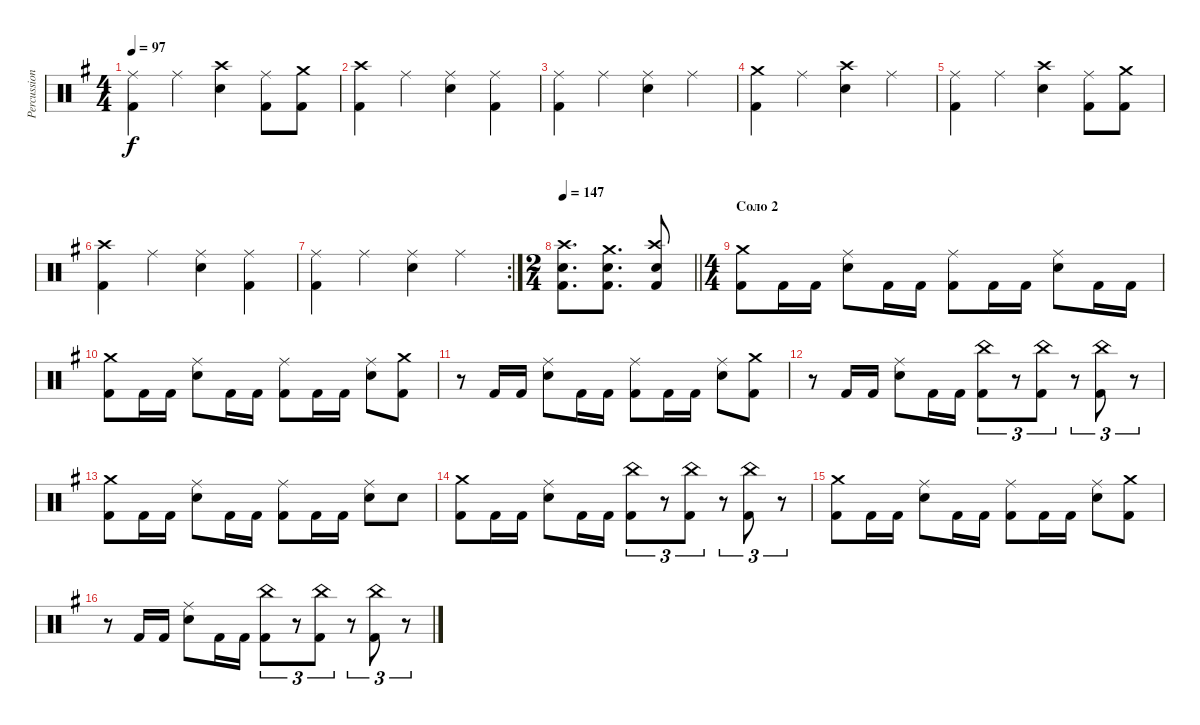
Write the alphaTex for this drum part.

\track ("Percussion" "Percussion") {instrument percussion}
\staff {score}
\articulation defaults
\ts (4 4)
\tempo 97
\clef neutral
\ks eminor
("Ride (middle)" "Kick (hit) 2").4{dy f} "Ride (middle)".4 ("Crash high (hit)" "Snare (hit) 2").4 ("Ride (middle)" "Kick (hit) 2").8 ("Crash medium (hit)" "Kick (hit) 2").8 |
("Crash high (hit)" "Kick (hit) 2").4 "Ride (middle)".4 ("Ride (middle)" "Snare (hit) 2").4 ("Ride (middle)" "Kick (hit) 2").4 |
("Ride (middle)" "Kick (hit) 2").4 "Ride (middle)".4 ("Ride (middle)" "Snare (hit) 2").4 "Ride (middle)".4 |
("Crash medium (hit)" "Kick (hit) 2").4 "Ride (middle)".4 ("Crash high (hit)" "Snare (hit) 2").4 "Ride (middle)".4 |
("Ride (middle)" "Kick (hit) 2").4 "Ride (middle)".4 ("Crash high (hit)" "Snare (hit) 2").4 ("Ride (middle)" "Kick (hit) 2").8 ("Crash medium (hit)" "Kick (hit) 2").8 |
("Crash high (hit)" "Kick (hit) 2").4 "Ride (middle)".4 ("Ride (middle)" "Snare (hit) 2").4 ("Ride (middle)" "Kick (hit) 2").4 |
\rc 2
("Ride (middle)" "Kick (hit) 2").4 "Ride (middle)".4 ("Ride (middle)" "Snare (hit) 2").4 "Ride (middle)".4 |
\ts (2 4)
\tempo 147
\barLineRight lightlight
("Crash high (hit)" "Snare (hit) 2" "Kick (hit) 2").8{d} ("Crash medium (hit)" "Snare (hit) 2" "Kick (hit) 2").8{d} ("Crash high (hit)" "Snare (hit) 2" "Kick (hit) 2").8 |
\ts (4 4)
\section ("" "Соло 2")
("Crash medium (hit)" "Kick (hit) 2").8 "Kick (hit) 2".16 "Kick (hit) 2".16 ("Ride (middle)" "Snare (hit) 2").8 "Kick (hit) 2".16 "Kick (hit) 2".16 ("Ride (middle)" "Kick (hit) 2").8 "Kick (hit) 2".16 "Kick (hit) 2".16 ("Ride (middle)" "Snare (hit) 2").8 "Kick (hit) 2".16 "Kick (hit) 2".16 |
("Crash medium (hit)" "Kick (hit) 2").8 "Kick (hit) 2".16 "Kick (hit) 2".16 ("Ride (middle)" "Snare (hit) 2").8 "Kick (hit) 2".16 "Kick (hit) 2".16 ("Ride (middle)" "Kick (hit) 2").8 "Kick (hit) 2".16 "Kick (hit) 2".16 ("Ride (middle)" "Snare (hit) 2").8 ("Crash medium (hit)" "Kick (hit) 2").8 |
r.8 "Kick (hit) 2".16 "Kick (hit) 2".16 ("Ride (middle)" "Snare (hit) 2").8 "Kick (hit) 2".16 "Kick (hit) 2".16 ("Ride (middle)" "Kick (hit) 2").8 "Kick (hit) 2".16 "Kick (hit) 2".16 ("Ride (middle)" "Snare (hit) 2").8 ("Crash medium (hit)" "Kick (hit) 2").8 |
r.8 "Kick (hit) 2".16 "Kick (hit) 2".16 ("Ride (middle)" "Snare (hit) 2").8 "Kick (hit) 2".16 "Kick (hit) 2".16 ("China (hit)" "Kick (hit) 2").8{tu (3 2)} r.8{tu (3 2)} ("China (hit)" "Kick (hit) 2").8{tu (3 2)} r.8{tu (3 2)} ("China (hit)" "Kick (hit) 2").8{tu (3 2)} r.8{tu (3 2)} |
("Crash medium (hit)" "Kick (hit) 2").8 "Kick (hit) 2".16 "Kick (hit) 2".16 ("Ride (middle)" "Snare (hit) 2").8 "Kick (hit) 2".16 "Kick (hit) 2".16 ("Ride (middle)" "Kick (hit) 2").8 "Kick (hit) 2".16 "Kick (hit) 2".16 ("Ride (middle)" "Snare (hit) 2").8 "Snare (hit) 2".8 |
("Crash medium (hit)" "Kick (hit) 2").8 "Kick (hit) 2".16 "Kick (hit) 2".16 ("Ride (middle)" "Snare (hit) 2").8 "Kick (hit) 2".16 "Kick (hit) 2".16 ("China (hit)" "Kick (hit) 2").8{tu (3 2)} r.8{tu (3 2)} ("China (hit)" "Kick (hit) 2").8{tu (3 2)} r.8{tu (3 2)} ("China (hit)" "Kick (hit) 2").8{tu (3 2)} r.8{tu (3 2)} |
("Crash medium (hit)" "Kick (hit) 2").8 "Kick (hit) 2".16 "Kick (hit) 2".16 ("Ride (middle)" "Snare (hit) 2").8 "Kick (hit) 2".16 "Kick (hit) 2".16 ("Ride (middle)" "Kick (hit) 2").8 "Kick (hit) 2".16 "Kick (hit) 2".16 ("Ride (middle)" "Snare (hit) 2").8 ("Crash medium (hit)" "Kick (hit) 2").8 |
r.8 "Kick (hit) 2".16 "Kick (hit) 2".16 ("Ride (middle)" "Snare (hit) 2").8 "Kick (hit) 2".16 "Kick (hit) 2".16 ("China (hit)" "Kick (hit) 2").8{tu (3 2)} r.8{tu (3 2)} ("China (hit)" "Kick (hit) 2").8{tu (3 2)} r.8{tu (3 2)} ("China (hit)" "Kick (hit) 2").8{tu (3 2)} r.8{tu (3 2)}
